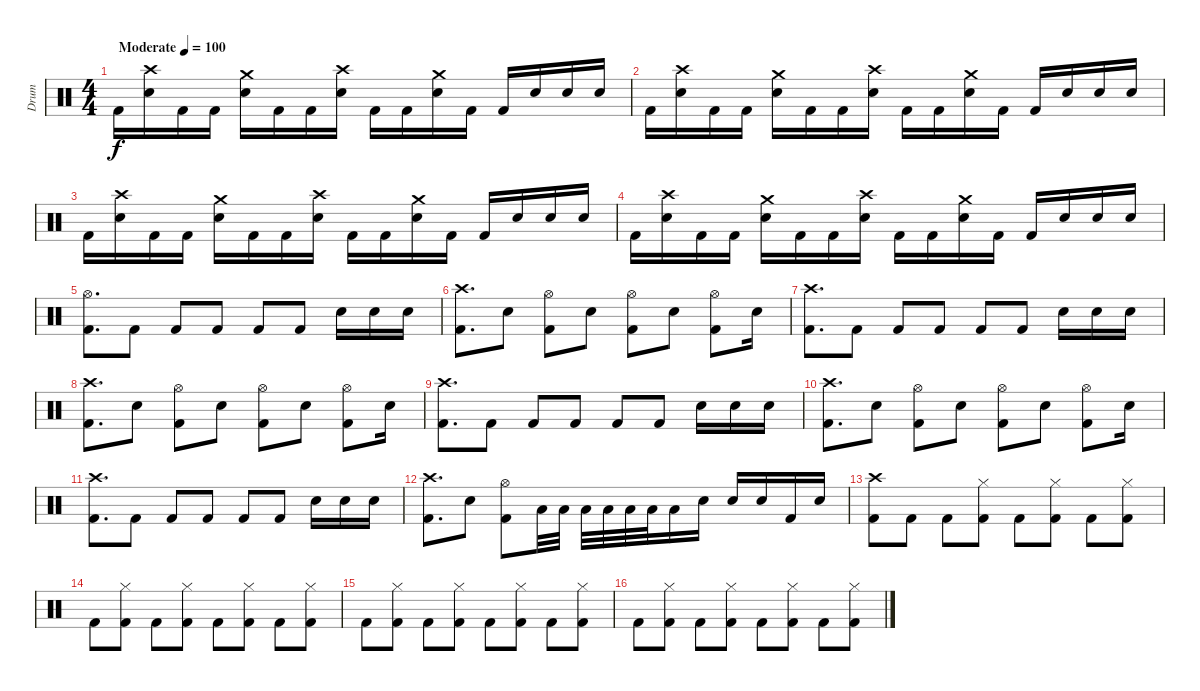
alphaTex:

\track ("Drum" "Drum") {instrument percussion}
\staff {score}
\articulation defaults
\ts (4 4)
\tempo (100 "Moderate")
\clef neutral
\ks c "Kick (hit) 2".16{dy f}
("Crash high (hit)" "Electric Snare (hit)").16 "Kick (hit) 2".16 "Kick (hit) 2".16 ("Crash medium (hit)" "Electric Snare (hit)").16 "Kick (hit) 2".16 "Kick (hit) 2".16 ("Crash high (hit)" "Electric Snare (hit)").16 "Kick (hit) 2".16 "Kick (hit) 2".16 ("Crash medium (hit)" "Electric Snare (hit)").16 "Kick (hit) 2".16 "Kick (hit) 2".16 "Electric Snare (hit)".16 "Electric Snare (hit)".16 "Electric Snare (hit)".16 |
"Kick (hit) 2".16 ("Crash high (hit)" "Electric Snare (hit)").16 "Kick (hit) 2".16 "Kick (hit) 2".16 ("Crash medium (hit)" "Electric Snare (hit)").16 "Kick (hit) 2".16 "Kick (hit) 2".16 ("Crash high (hit)" "Electric Snare (hit)").16 "Kick (hit) 2".16 "Kick (hit) 2".16 ("Crash medium (hit)" "Electric Snare (hit)").16 "Kick (hit) 2".16 "Kick (hit) 2".16 "Electric Snare (hit)".16 "Electric Snare (hit)".16 "Electric Snare (hit)".16 |
"Kick (hit) 2".16 ("Crash high (hit)" "Electric Snare (hit)").16 "Kick (hit) 2".16 "Kick (hit) 2".16 ("Crash medium (hit)" "Electric Snare (hit)").16 "Kick (hit) 2".16 "Kick (hit) 2".16 ("Crash high (hit)" "Electric Snare (hit)").16 "Kick (hit) 2".16 "Kick (hit) 2".16 ("Crash medium (hit)" "Electric Snare (hit)").16 "Kick (hit) 2".16 "Kick (hit) 2".16 "Electric Snare (hit)".16 "Electric Snare (hit)".16 "Electric Snare (hit)".16 |
"Kick (hit) 2".16 ("Crash high (hit)" "Electric Snare (hit)").16 "Kick (hit) 2".16 "Kick (hit) 2".16 ("Crash medium (hit)" "Electric Snare (hit)").16 "Kick (hit) 2".16 "Kick (hit) 2".16 ("Crash high (hit)" "Electric Snare (hit)").16 "Kick (hit) 2".16 "Kick (hit) 2".16 ("Crash medium (hit)" "Electric Snare (hit)").16 "Kick (hit) 2".16 "Kick (hit) 2".16 "Electric Snare (hit)".16 "Electric Snare (hit)".16 "Electric Snare (hit)".16 |
("Hi-Hat (open)" "Kick (hit) 2").8{d} "Kick (hit) 2".8 "Kick (hit) 2".8 "Kick (hit) 2".8 "Kick (hit) 2".8 "Kick (hit) 2".8 "Electric Snare (hit)".16 "Electric Snare (hit)".16 "Electric Snare (hit)".16 |
("Crash high (hit)" "Kick (hit) 2").8{d} "Electric Snare (hit)".8 ("Hi-Hat (open)" "Kick (hit) 2").8 "Electric Snare (hit)".8 ("Hi-Hat (open)" "Kick (hit) 2").8 "Electric Snare (hit)".8 ("Hi-Hat (open)" "Kick (hit) 2").8 "Electric Snare (hit)".16 |
("Crash high (hit)" "Kick (hit) 2").8{d} "Kick (hit) 2".8 "Kick (hit) 2".8 "Kick (hit) 2".8 "Kick (hit) 2".8 "Kick (hit) 2".8 "Electric Snare (hit)".16 "Electric Snare (hit)".16 "Electric Snare (hit)".16 |
("Crash high (hit)" "Kick (hit) 2").8{d} "Electric Snare (hit)".8 ("Hi-Hat (open)" "Kick (hit) 2").8 "Electric Snare (hit)".8 ("Hi-Hat (open)" "Kick (hit) 2").8 "Electric Snare (hit)".8 ("Hi-Hat (open)" "Kick (hit) 2").8 "Electric Snare (hit)".16 |
("Crash high (hit)" "Kick (hit) 2").8{d} "Kick (hit) 2".8 "Kick (hit) 2".8 "Kick (hit) 2".8 "Kick (hit) 2".8 "Kick (hit) 2".8 "Electric Snare (hit)".16 "Electric Snare (hit)".16 "Electric Snare (hit)".16 |
("Crash high (hit)" "Kick (hit) 2").8{d} "Electric Snare (hit)".8 ("Hi-Hat (open)" "Kick (hit) 2").8 "Electric Snare (hit)".8 ("Hi-Hat (open)" "Kick (hit) 2").8 "Electric Snare (hit)".8 ("Hi-Hat (open)" "Kick (hit) 2").8 "Electric Snare (hit)".16 |
("Crash high (hit)" "Kick (hit) 2").8{d} "Kick (hit) 2".8 "Kick (hit) 2".8 "Kick (hit) 2".8 "Kick (hit) 2".8 "Kick (hit) 2".8 "Electric Snare (hit)".16 "Electric Snare (hit)".16 "Electric Snare (hit)".16 |
("Crash high (hit)" "Kick (hit) 2").8{d} "Electric Snare (hit)".8 ("Hi-Hat (open)" "Kick (hit) 2").8 "Low Tom (hit)".32 "Low Tom (hit)".32 "Low Tom (hit)".32 "Low Tom (hit)".32 "Low Tom (hit)".32 "Low Tom (hit)".32 "Low Tom (hit)".16 "Electric Snare (hit)".16 "Electric Snare (hit)".16 "Electric Snare (hit)".16 "Kick (hit) 2".16 "Electric Snare (hit)".16 |
("Crash high (hit)" "Kick (hit) 2").8 "Kick (hit) 2".8 "Kick (hit) 2".8 ("Hi-Hat (closed)" "Kick (hit) 2").8 "Kick (hit) 2".8 ("Hi-Hat (closed)" "Kick (hit) 2").8 "Kick (hit) 2".8 ("Hi-Hat (closed)" "Kick (hit) 2").8 |
"Kick (hit) 2".8 ("Hi-Hat (closed)" "Kick (hit) 2").8 "Kick (hit) 2".8 ("Hi-Hat (closed)" "Kick (hit) 2").8 "Kick (hit) 2".8 ("Hi-Hat (closed)" "Kick (hit) 2").8 "Kick (hit) 2".8 ("Hi-Hat (closed)" "Kick (hit) 2").8 |
"Kick (hit) 2".8 ("Hi-Hat (closed)" "Kick (hit) 2").8 "Kick (hit) 2".8 ("Hi-Hat (closed)" "Kick (hit) 2").8 "Kick (hit) 2".8 ("Hi-Hat (closed)" "Kick (hit) 2").8 "Kick (hit) 2".8 ("Hi-Hat (closed)" "Kick (hit) 2").8 |
"Kick (hit) 2".8 ("Hi-Hat (closed)" "Kick (hit) 2").8 "Kick (hit) 2".8 ("Hi-Hat (closed)" "Kick (hit) 2").8 "Kick (hit) 2".8 ("Hi-Hat (closed)" "Kick (hit) 2").8 "Kick (hit) 2".8 ("Hi-Hat (closed)" "Kick (hit) 2").8
